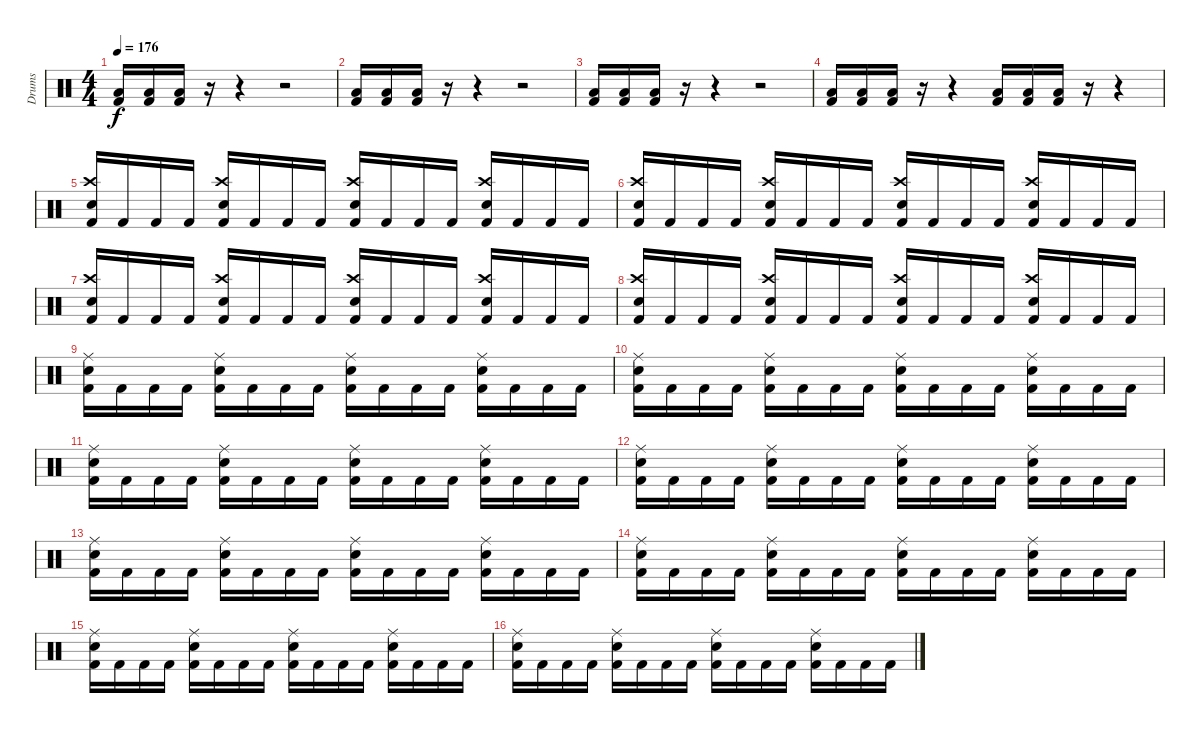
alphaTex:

\track ("Drums" "Drums") {instrument percussion}
\staff {score}
\articulation defaults
\ts (4 4)
\tempo 176
\clef neutral
\ks c
("Low Tom (hit)" "Kick (hit) 2").16{dy f} ("Low Tom (hit)" "Kick (hit) 2").16 ("Low Tom (hit)" "Kick (hit) 2").16 r.16 r.4 r.2 |
("Low Tom (hit)" "Kick (hit) 2").16 ("Low Tom (hit)" "Kick (hit) 2").16 ("Low Tom (hit)" "Kick (hit) 2").16 r.16 r.4 r.2 |
("Low Tom (hit)" "Kick (hit) 2").16 ("Low Tom (hit)" "Kick (hit) 2").16 ("Low Tom (hit)" "Kick (hit) 2").16 r.16 r.4 r.2 |
("Low Tom (hit)" "Kick (hit) 2").16 ("Low Tom (hit)" "Kick (hit) 2").16 ("Low Tom (hit)" "Kick (hit) 2").16 r.16 r.4 ("Low Tom (hit)" "Kick (hit) 2").16 ("Low Tom (hit)" "Kick (hit) 2").16 ("Low Tom (hit)" "Kick (hit) 2").16 r.16 r.4 |
("Crash high (hit)" "Electric Snare (hit)" "Kick (hit) 2").16 "Kick (hit) 2".16 "Kick (hit) 2".16 "Kick (hit) 2".16 ("Crash high (hit)" "Electric Snare (hit)" "Kick (hit) 2").16 "Kick (hit) 2".16 "Kick (hit) 2".16 "Kick (hit) 2".16 ("Crash high (hit)" "Electric Snare (hit)" "Kick (hit) 2").16 "Kick (hit) 2".16 "Kick (hit) 2".16 "Kick (hit) 2".16 ("Crash high (hit)" "Electric Snare (hit)" "Kick (hit) 2").16 "Kick (hit) 2".16 "Kick (hit) 2".16 "Kick (hit) 2".16 |
("Crash high (hit)" "Electric Snare (hit)" "Kick (hit) 2").16 "Kick (hit) 2".16 "Kick (hit) 2".16 "Kick (hit) 2".16 ("Crash high (hit)" "Electric Snare (hit)" "Kick (hit) 2").16 "Kick (hit) 2".16 "Kick (hit) 2".16 "Kick (hit) 2".16 ("Crash high (hit)" "Electric Snare (hit)" "Kick (hit) 2").16 "Kick (hit) 2".16 "Kick (hit) 2".16 "Kick (hit) 2".16 ("Crash high (hit)" "Electric Snare (hit)" "Kick (hit) 2").16 "Kick (hit) 2".16 "Kick (hit) 2".16 "Kick (hit) 2".16 |
("Crash high (hit)" "Electric Snare (hit)" "Kick (hit) 2").16 "Kick (hit) 2".16 "Kick (hit) 2".16 "Kick (hit) 2".16 ("Crash high (hit)" "Electric Snare (hit)" "Kick (hit) 2").16 "Kick (hit) 2".16 "Kick (hit) 2".16 "Kick (hit) 2".16 ("Crash high (hit)" "Electric Snare (hit)" "Kick (hit) 2").16 "Kick (hit) 2".16 "Kick (hit) 2".16 "Kick (hit) 2".16 ("Crash high (hit)" "Electric Snare (hit)" "Kick (hit) 2").16 "Kick (hit) 2".16 "Kick (hit) 2".16 "Kick (hit) 2".16 |
("Crash high (hit)" "Electric Snare (hit)" "Kick (hit) 2").16 "Kick (hit) 2".16 "Kick (hit) 2".16 "Kick (hit) 2".16 ("Crash high (hit)" "Electric Snare (hit)" "Kick (hit) 2").16 "Kick (hit) 2".16 "Kick (hit) 2".16 "Kick (hit) 2".16 ("Crash high (hit)" "Electric Snare (hit)" "Kick (hit) 2").16 "Kick (hit) 2".16 "Kick (hit) 2".16 "Kick (hit) 2".16 ("Crash high (hit)" "Electric Snare (hit)" "Kick (hit) 2").16 "Kick (hit) 2".16 "Kick (hit) 2".16 "Kick (hit) 2".16 |
("Ride (middle)" "Electric Snare (hit)" "Kick (hit) 2").16 "Kick (hit) 2".16 "Kick (hit) 2".16 "Kick (hit) 2".16 ("Ride (middle)" "Electric Snare (hit)" "Kick (hit) 2").16 "Kick (hit) 2".16 "Kick (hit) 2".16 "Kick (hit) 2".16 ("Ride (middle)" "Electric Snare (hit)" "Kick (hit) 2").16 "Kick (hit) 2".16 "Kick (hit) 2".16 "Kick (hit) 2".16 ("Ride (middle)" "Electric Snare (hit)" "Kick (hit) 2").16 "Kick (hit) 2".16 "Kick (hit) 2".16 "Kick (hit) 2".16 |
("Ride (middle)" "Electric Snare (hit)" "Kick (hit) 2").16 "Kick (hit) 2".16 "Kick (hit) 2".16 "Kick (hit) 2".16 ("Ride (middle)" "Electric Snare (hit)" "Kick (hit) 2").16 "Kick (hit) 2".16 "Kick (hit) 2".16 "Kick (hit) 2".16 ("Ride (middle)" "Electric Snare (hit)" "Kick (hit) 2").16 "Kick (hit) 2".16 "Kick (hit) 2".16 "Kick (hit) 2".16 ("Ride (middle)" "Electric Snare (hit)" "Kick (hit) 2").16 "Kick (hit) 2".16 "Kick (hit) 2".16 "Kick (hit) 2".16 |
("Ride (middle)" "Electric Snare (hit)" "Kick (hit) 2").16 "Kick (hit) 2".16 "Kick (hit) 2".16 "Kick (hit) 2".16 ("Ride (middle)" "Electric Snare (hit)" "Kick (hit) 2").16 "Kick (hit) 2".16 "Kick (hit) 2".16 "Kick (hit) 2".16 ("Ride (middle)" "Electric Snare (hit)" "Kick (hit) 2").16 "Kick (hit) 2".16 "Kick (hit) 2".16 "Kick (hit) 2".16 ("Ride (middle)" "Electric Snare (hit)" "Kick (hit) 2").16 "Kick (hit) 2".16 "Kick (hit) 2".16 "Kick (hit) 2".16 |
("Ride (middle)" "Electric Snare (hit)" "Kick (hit) 2").16 "Kick (hit) 2".16 "Kick (hit) 2".16 "Kick (hit) 2".16 ("Ride (middle)" "Electric Snare (hit)" "Kick (hit) 2").16 "Kick (hit) 2".16 "Kick (hit) 2".16 "Kick (hit) 2".16 ("Ride (middle)" "Electric Snare (hit)" "Kick (hit) 2").16 "Kick (hit) 2".16 "Kick (hit) 2".16 "Kick (hit) 2".16 ("Ride (middle)" "Electric Snare (hit)" "Kick (hit) 2").16 "Kick (hit) 2".16 "Kick (hit) 2".16 "Kick (hit) 2".16 |
("Ride (middle)" "Electric Snare (hit)" "Kick (hit) 2").16 "Kick (hit) 2".16 "Kick (hit) 2".16 "Kick (hit) 2".16 ("Ride (middle)" "Electric Snare (hit)" "Kick (hit) 2").16 "Kick (hit) 2".16 "Kick (hit) 2".16 "Kick (hit) 2".16 ("Ride (middle)" "Electric Snare (hit)" "Kick (hit) 2").16 "Kick (hit) 2".16 "Kick (hit) 2".16 "Kick (hit) 2".16 ("Ride (middle)" "Electric Snare (hit)" "Kick (hit) 2").16 "Kick (hit) 2".16 "Kick (hit) 2".16 "Kick (hit) 2".16 |
("Ride (middle)" "Electric Snare (hit)" "Kick (hit) 2").16 "Kick (hit) 2".16 "Kick (hit) 2".16 "Kick (hit) 2".16 ("Ride (middle)" "Electric Snare (hit)" "Kick (hit) 2").16 "Kick (hit) 2".16 "Kick (hit) 2".16 "Kick (hit) 2".16 ("Ride (middle)" "Electric Snare (hit)" "Kick (hit) 2").16 "Kick (hit) 2".16 "Kick (hit) 2".16 "Kick (hit) 2".16 ("Ride (middle)" "Electric Snare (hit)" "Kick (hit) 2").16 "Kick (hit) 2".16 "Kick (hit) 2".16 "Kick (hit) 2".16 |
("Ride (middle)" "Electric Snare (hit)" "Kick (hit) 2").16 "Kick (hit) 2".16 "Kick (hit) 2".16 "Kick (hit) 2".16 ("Ride (middle)" "Electric Snare (hit)" "Kick (hit) 2").16 "Kick (hit) 2".16 "Kick (hit) 2".16 "Kick (hit) 2".16 ("Ride (middle)" "Electric Snare (hit)" "Kick (hit) 2").16 "Kick (hit) 2".16 "Kick (hit) 2".16 "Kick (hit) 2".16 ("Ride (middle)" "Electric Snare (hit)" "Kick (hit) 2").16 "Kick (hit) 2".16 "Kick (hit) 2".16 "Kick (hit) 2".16 |
("Ride (middle)" "Electric Snare (hit)" "Kick (hit) 2").16 "Kick (hit) 2".16 "Kick (hit) 2".16 "Kick (hit) 2".16 ("Ride (middle)" "Electric Snare (hit)" "Kick (hit) 2").16 "Kick (hit) 2".16 "Kick (hit) 2".16 "Kick (hit) 2".16 ("Ride (middle)" "Electric Snare (hit)" "Kick (hit) 2").16 "Kick (hit) 2".16 "Kick (hit) 2".16 "Kick (hit) 2".16 ("Ride (middle)" "Electric Snare (hit)" "Kick (hit) 2").16 "Kick (hit) 2".16 "Kick (hit) 2".16 "Kick (hit) 2".16
